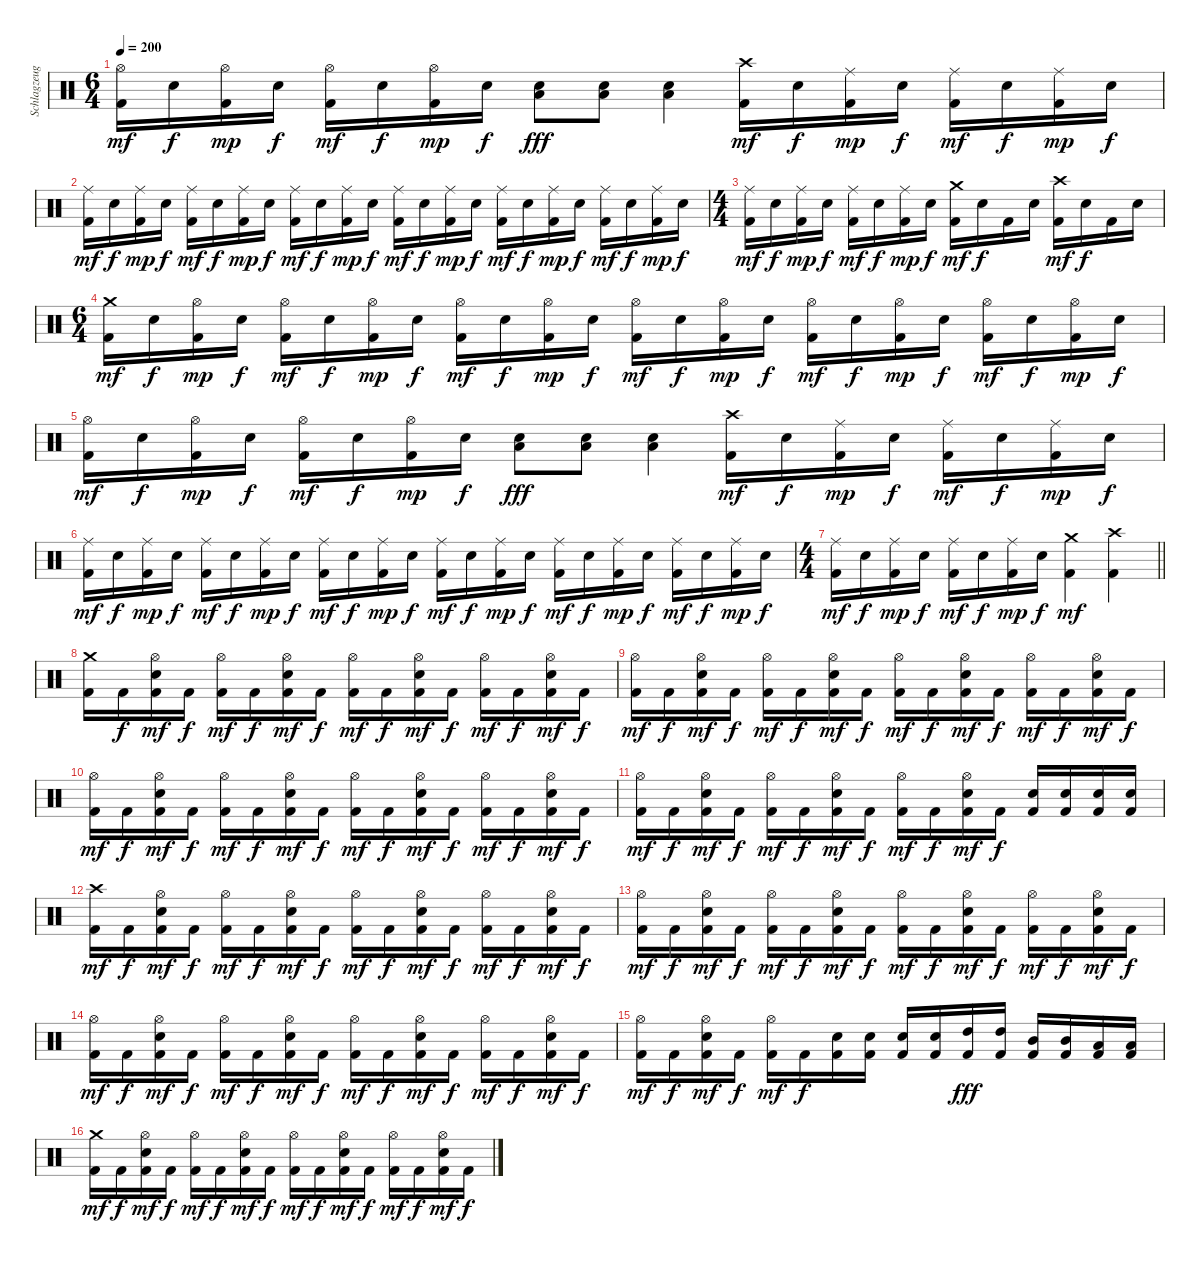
\track ("Schlagzeug" "Schlagzeug") {instrument percussion}
\staff {score}
\articulation defaults
\ts (6 4)
\tempo 200
\clef neutral
\ks c
("Hi-Hat (open)" "Kick (hit) 2").16{dy mf} "Electric Snare (hit)".16{dy f} ("Hi-Hat (open)" "Kick (hit) 2").16{dy mp} "Electric Snare (hit)".16{dy f} ("Hi-Hat (open)" "Kick (hit) 2").16{dy mf} "Electric Snare (hit)".16{dy f} ("Hi-Hat (open)" "Kick (hit) 2").16{dy mp} "Electric Snare (hit)".16{dy f} ("Electric Snare (hit)" "Low Tom (hit)").8{dy fff} ("Electric Snare (hit)" "Low Tom (hit)").8 ("Electric Snare (hit)" "Low Tom (hit)").4 ("Crash high (hit)" "Kick (hit) 2").16{dy mf} "Electric Snare (hit)".16{dy f} ("Ride (middle)" "Kick (hit) 2").16{dy mp} "Electric Snare (hit)".16{dy f} ("Ride (middle)" "Kick (hit) 2").16{dy mf} "Electric Snare (hit)".16{dy f} ("Ride (middle)" "Kick (hit) 2").16{dy mp} "Electric Snare (hit)".16{dy f} |
("Ride (middle)" "Kick (hit) 2").16{dy mf} "Electric Snare (hit)".16{dy f} ("Ride (middle)" "Kick (hit) 2").16{dy mp} "Electric Snare (hit)".16{dy f} ("Ride (middle)" "Kick (hit) 2").16{dy mf} "Electric Snare (hit)".16{dy f} ("Ride (middle)" "Kick (hit) 2").16{dy mp} "Electric Snare (hit)".16{dy f} ("Ride (middle)" "Kick (hit) 2").16{dy mf} "Electric Snare (hit)".16{dy f} ("Ride (middle)" "Kick (hit) 2").16{dy mp} "Electric Snare (hit)".16{dy f} ("Ride (middle)" "Kick (hit) 2").16{dy mf} "Electric Snare (hit)".16{dy f} ("Ride (middle)" "Kick (hit) 2").16{dy mp} "Electric Snare (hit)".16{dy f} ("Ride (middle)" "Kick (hit) 2").16{dy mf} "Electric Snare (hit)".16{dy f} ("Ride (middle)" "Kick (hit) 2").16{dy mp} "Electric Snare (hit)".16{dy f} ("Ride (middle)" "Kick (hit) 2").16{dy mf} "Electric Snare (hit)".16{dy f} ("Ride (middle)" "Kick (hit) 2").16{dy mp} "Electric Snare (hit)".16{dy f} |
\ts (4 4)
("Ride (middle)" "Kick (hit) 2").16{dy mf} "Electric Snare (hit)".16{dy f} ("Ride (middle)" "Kick (hit) 2").16{dy mp} "Electric Snare (hit)".16{dy f} ("Ride (middle)" "Kick (hit) 2").16{dy mf} "Electric Snare (hit)".16{dy f} ("Ride (middle)" "Kick (hit) 2").16{dy mp} "Electric Snare (hit)".16{dy f} ("Crash medium (hit)" "Kick (hit) 2").16{dy mf} "Electric Snare (hit)".16{dy f} "Kick (hit) 2".16 "Electric Snare (hit)".16 ("Crash high (hit)" "Kick (hit) 2").16{dy mf} "Electric Snare (hit)".16{dy f} "Kick (hit) 2".16 "Electric Snare (hit)".16 |
\ts (6 4)
("Crash medium (hit)" "Kick (hit) 2").16{dy mf} "Electric Snare (hit)".16{dy f} ("Hi-Hat (open)" "Kick (hit) 2").16{dy mp} "Electric Snare (hit)".16{dy f} ("Hi-Hat (open)" "Kick (hit) 2").16{dy mf} "Electric Snare (hit)".16{dy f} ("Hi-Hat (open)" "Kick (hit) 2").16{dy mp} "Electric Snare (hit)".16{dy f} ("Hi-Hat (open)" "Kick (hit) 2").16{dy mf} "Electric Snare (hit)".16{dy f} ("Hi-Hat (open)" "Kick (hit) 2").16{dy mp} "Electric Snare (hit)".16{dy f} ("Hi-Hat (open)" "Kick (hit) 2").16{dy mf} "Electric Snare (hit)".16{dy f} ("Hi-Hat (open)" "Kick (hit) 2").16{dy mp} "Electric Snare (hit)".16{dy f} ("Hi-Hat (open)" "Kick (hit) 2").16{dy mf} "Electric Snare (hit)".16{dy f} ("Hi-Hat (open)" "Kick (hit) 2").16{dy mp} "Electric Snare (hit)".16{dy f} ("Hi-Hat (open)" "Kick (hit) 2").16{dy mf} "Electric Snare (hit)".16{dy f} ("Hi-Hat (open)" "Kick (hit) 2").16{dy mp} "Electric Snare (hit)".16{dy f} |
("Hi-Hat (open)" "Kick (hit) 2").16{dy mf} "Electric Snare (hit)".16{dy f} ("Hi-Hat (open)" "Kick (hit) 2").16{dy mp} "Electric Snare (hit)".16{dy f} ("Hi-Hat (open)" "Kick (hit) 2").16{dy mf} "Electric Snare (hit)".16{dy f} ("Hi-Hat (open)" "Kick (hit) 2").16{dy mp} "Electric Snare (hit)".16{dy f} ("Electric Snare (hit)" "Low Tom (hit)").8{dy fff} ("Electric Snare (hit)" "Low Tom (hit)").8 ("Electric Snare (hit)" "Low Tom (hit)").4 ("Crash high (hit)" "Kick (hit) 2").16{dy mf} "Electric Snare (hit)".16{dy f} ("Ride (middle)" "Kick (hit) 2").16{dy mp} "Electric Snare (hit)".16{dy f} ("Ride (middle)" "Kick (hit) 2").16{dy mf} "Electric Snare (hit)".16{dy f} ("Ride (middle)" "Kick (hit) 2").16{dy mp} "Electric Snare (hit)".16{dy f} |
("Ride (middle)" "Kick (hit) 2").16{dy mf} "Electric Snare (hit)".16{dy f} ("Ride (middle)" "Kick (hit) 2").16{dy mp} "Electric Snare (hit)".16{dy f} ("Ride (middle)" "Kick (hit) 2").16{dy mf} "Electric Snare (hit)".16{dy f} ("Ride (middle)" "Kick (hit) 2").16{dy mp} "Electric Snare (hit)".16{dy f} ("Ride (middle)" "Kick (hit) 2").16{dy mf} "Electric Snare (hit)".16{dy f} ("Ride (middle)" "Kick (hit) 2").16{dy mp} "Electric Snare (hit)".16{dy f} ("Ride (middle)" "Kick (hit) 2").16{dy mf} "Electric Snare (hit)".16{dy f} ("Ride (middle)" "Kick (hit) 2").16{dy mp} "Electric Snare (hit)".16{dy f} ("Ride (middle)" "Kick (hit) 2").16{dy mf} "Electric Snare (hit)".16{dy f} ("Ride (middle)" "Kick (hit) 2").16{dy mp} "Electric Snare (hit)".16{dy f} ("Ride (middle)" "Kick (hit) 2").16{dy mf} "Electric Snare (hit)".16{dy f} ("Ride (middle)" "Kick (hit) 2").16{dy mp} "Electric Snare (hit)".16{dy f} |
\ts (4 4)
\barLineRight lightlight
("Ride (middle)" "Kick (hit) 2").16{dy mf} "Electric Snare (hit)".16{dy f} ("Ride (middle)" "Kick (hit) 2").16{dy mp} "Electric Snare (hit)".16{dy f} ("Ride (middle)" "Kick (hit) 2").16{dy mf} "Electric Snare (hit)".16{dy f} ("Ride (middle)" "Kick (hit) 2").16{dy mp} "Electric Snare (hit)".16{dy f} ("Crash medium (hit)" "Kick (hit) 2").4{dy mf} ("Crash high (hit)" "Kick (hit) 2").4 |
\section ("" "")
("Crash medium (hit)" "Kick (hit) 2").16 "Kick (hit) 2".16{dy f} ("Hi-Hat (open)" "Electric Snare (hit)" "Kick (hit) 2").16{dy mf} "Kick (hit) 2".16{dy f} ("Hi-Hat (open)" "Kick (hit) 2").16{dy mf} "Kick (hit) 2".16{dy f} ("Hi-Hat (open)" "Electric Snare (hit)" "Kick (hit) 2").16{dy mf} "Kick (hit) 2".16{dy f} ("Hi-Hat (open)" "Kick (hit) 2").16{dy mf} "Kick (hit) 2".16{dy f} ("Hi-Hat (open)" "Electric Snare (hit)" "Kick (hit) 2").16{dy mf} "Kick (hit) 2".16{dy f} ("Hi-Hat (open)" "Kick (hit) 2").16{dy mf} "Kick (hit) 2".16{dy f} ("Hi-Hat (open)" "Electric Snare (hit)" "Kick (hit) 2").16{dy mf} "Kick (hit) 2".16{dy f} |
("Hi-Hat (open)" "Kick (hit) 2").16{dy mf} "Kick (hit) 2".16{dy f} ("Hi-Hat (open)" "Electric Snare (hit)" "Kick (hit) 2").16{dy mf} "Kick (hit) 2".16{dy f} ("Hi-Hat (open)" "Kick (hit) 2").16{dy mf} "Kick (hit) 2".16{dy f} ("Hi-Hat (open)" "Electric Snare (hit)" "Kick (hit) 2").16{dy mf} "Kick (hit) 2".16{dy f} ("Hi-Hat (open)" "Kick (hit) 2").16{dy mf} "Kick (hit) 2".16{dy f} ("Hi-Hat (open)" "Electric Snare (hit)" "Kick (hit) 2").16{dy mf} "Kick (hit) 2".16{dy f} ("Hi-Hat (open)" "Kick (hit) 2").16{dy mf} "Kick (hit) 2".16{dy f} ("Hi-Hat (open)" "Electric Snare (hit)" "Kick (hit) 2").16{dy mf} "Kick (hit) 2".16{dy f} |
("Hi-Hat (open)" "Kick (hit) 2").16{dy mf} "Kick (hit) 2".16{dy f} ("Hi-Hat (open)" "Electric Snare (hit)" "Kick (hit) 2").16{dy mf} "Kick (hit) 2".16{dy f} ("Hi-Hat (open)" "Kick (hit) 2").16{dy mf} "Kick (hit) 2".16{dy f} ("Hi-Hat (open)" "Electric Snare (hit)" "Kick (hit) 2").16{dy mf} "Kick (hit) 2".16{dy f} ("Hi-Hat (open)" "Kick (hit) 2").16{dy mf} "Kick (hit) 2".16{dy f} ("Hi-Hat (open)" "Electric Snare (hit)" "Kick (hit) 2").16{dy mf} "Kick (hit) 2".16{dy f} ("Hi-Hat (open)" "Kick (hit) 2").16{dy mf} "Kick (hit) 2".16{dy f} ("Hi-Hat (open)" "Electric Snare (hit)" "Kick (hit) 2").16{dy mf} "Kick (hit) 2".16{dy f} |
("Hi-Hat (open)" "Kick (hit) 2").16{dy mf} "Kick (hit) 2".16{dy f} ("Hi-Hat (open)" "Electric Snare (hit)" "Kick (hit) 2").16{dy mf} "Kick (hit) 2".16{dy f} ("Hi-Hat (open)" "Kick (hit) 2").16{dy mf} "Kick (hit) 2".16{dy f} ("Hi-Hat (open)" "Electric Snare (hit)" "Kick (hit) 2").16{dy mf} "Kick (hit) 2".16{dy f} ("Hi-Hat (open)" "Kick (hit) 2").16{dy mf} "Kick (hit) 2".16{dy f} ("Hi-Hat (open)" "Electric Snare (hit)" "Kick (hit) 2").16{dy mf} "Kick (hit) 2".16{dy f} ("Electric Snare (hit)" "Kick (hit) 2").16 ("Electric Snare (hit)" "Kick (hit) 2").16 ("Electric Snare (hit)" "Kick (hit) 2").16 ("Electric Snare (hit)" "Kick (hit) 2").16 |
("Crash high (hit)" "Kick (hit) 2").16{dy mf} "Kick (hit) 2".16{dy f} ("Hi-Hat (open)" "Electric Snare (hit)" "Kick (hit) 2").16{dy mf} "Kick (hit) 2".16{dy f} ("Hi-Hat (open)" "Kick (hit) 2").16{dy mf} "Kick (hit) 2".16{dy f} ("Hi-Hat (open)" "Electric Snare (hit)" "Kick (hit) 2").16{dy mf} "Kick (hit) 2".16{dy f} ("Hi-Hat (open)" "Kick (hit) 2").16{dy mf} "Kick (hit) 2".16{dy f} ("Hi-Hat (open)" "Electric Snare (hit)" "Kick (hit) 2").16{dy mf} "Kick (hit) 2".16{dy f} ("Hi-Hat (open)" "Kick (hit) 2").16{dy mf} "Kick (hit) 2".16{dy f} ("Hi-Hat (open)" "Electric Snare (hit)" "Kick (hit) 2").16{dy mf} "Kick (hit) 2".16{dy f} |
("Hi-Hat (open)" "Kick (hit) 2").16{dy mf} "Kick (hit) 2".16{dy f} ("Hi-Hat (open)" "Electric Snare (hit)" "Kick (hit) 2").16{dy mf} "Kick (hit) 2".16{dy f} ("Hi-Hat (open)" "Kick (hit) 2").16{dy mf} "Kick (hit) 2".16{dy f} ("Hi-Hat (open)" "Electric Snare (hit)" "Kick (hit) 2").16{dy mf} "Kick (hit) 2".16{dy f} ("Hi-Hat (open)" "Kick (hit) 2").16{dy mf} "Kick (hit) 2".16{dy f} ("Hi-Hat (open)" "Electric Snare (hit)" "Kick (hit) 2").16{dy mf} "Kick (hit) 2".16{dy f} ("Hi-Hat (open)" "Kick (hit) 2").16{dy mf} "Kick (hit) 2".16{dy f} ("Hi-Hat (open)" "Electric Snare (hit)" "Kick (hit) 2").16{dy mf} "Kick (hit) 2".16{dy f} |
("Hi-Hat (open)" "Kick (hit) 2").16{dy mf} "Kick (hit) 2".16{dy f} ("Hi-Hat (open)" "Electric Snare (hit)" "Kick (hit) 2").16{dy mf} "Kick (hit) 2".16{dy f} ("Hi-Hat (open)" "Kick (hit) 2").16{dy mf} "Kick (hit) 2".16{dy f} ("Hi-Hat (open)" "Electric Snare (hit)" "Kick (hit) 2").16{dy mf} "Kick (hit) 2".16{dy f} ("Hi-Hat (open)" "Kick (hit) 2").16{dy mf} "Kick (hit) 2".16{dy f} ("Hi-Hat (open)" "Electric Snare (hit)" "Kick (hit) 2").16{dy mf} "Kick (hit) 2".16{dy f} ("Hi-Hat (open)" "Kick (hit) 2").16{dy mf} "Kick (hit) 2".16{dy f} ("Hi-Hat (open)" "Electric Snare (hit)" "Kick (hit) 2").16{dy mf} "Kick (hit) 2".16{dy f} |
("Hi-Hat (open)" "Kick (hit) 2").16{dy mf} "Kick (hit) 2".16{dy f} ("Hi-Hat (open)" "Electric Snare (hit)" "Kick (hit) 2").16{dy mf} "Kick (hit) 2".16{dy f} ("Hi-Hat (open)" "Kick (hit) 2").16{dy mf} "Kick (hit) 2".16{dy f} ("Electric Snare (hit)" "Kick (hit) 2").16 ("Electric Snare (hit)" "Kick (hit) 2").16 ("Electric Snare (hit)" "Kick (hit) 2").16 ("Electric Snare (hit)" "Kick (hit) 2").16 ("High Tom (hit)" "Kick (hit) 2").16{dy fff} ("High Tom (hit)" "Kick (hit) 2").16 ("Mid Tom (hit)" "Kick (hit) 2").16 ("Mid Tom (hit)" "Kick (hit) 2").16 ("Low Tom (hit)" "Kick (hit) 2").16 ("Low Tom (hit)" "Kick (hit) 2").16 |
("Crash medium (hit)" "Kick (hit) 2").16{dy mf} "Kick (hit) 2".16{dy f} ("Hi-Hat (open)" "Electric Snare (hit)" "Kick (hit) 2").16{dy mf} "Kick (hit) 2".16{dy f} ("Hi-Hat (open)" "Kick (hit) 2").16{dy mf} "Kick (hit) 2".16{dy f} ("Hi-Hat (open)" "Electric Snare (hit)" "Kick (hit) 2").16{dy mf} "Kick (hit) 2".16{dy f} ("Hi-Hat (open)" "Kick (hit) 2").16{dy mf} "Kick (hit) 2".16{dy f} ("Hi-Hat (open)" "Electric Snare (hit)" "Kick (hit) 2").16{dy mf} "Kick (hit) 2".16{dy f} ("Hi-Hat (open)" "Kick (hit) 2").16{dy mf} "Kick (hit) 2".16{dy f} ("Hi-Hat (open)" "Electric Snare (hit)" "Kick (hit) 2").16{dy mf} "Kick (hit) 2".16{dy f}
